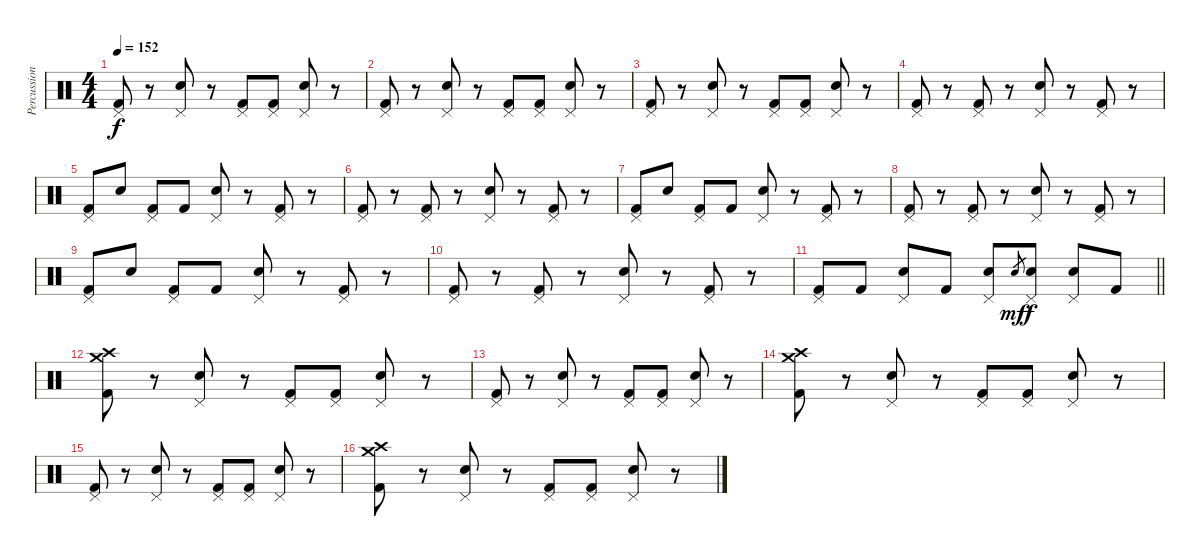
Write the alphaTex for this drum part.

\track ("Percussion" "Percussion") {instrument percussion}
\staff {score}
\articulation defaults
\ts (4 4)
\tempo 152
\clef neutral
\ks c
("Kick (hit) 2" "Pedal Hi-Hat (hit)").8{dy f} r.8 ("Snare (hit) 2" "Pedal Hi-Hat (hit)").8 r.8 ("Kick (hit) 2" "Pedal Hi-Hat (hit)").8 ("Kick (hit) 2" "Pedal Hi-Hat (hit)").8 ("Snare (hit) 2" "Pedal Hi-Hat (hit)").8 r.8 |
("Kick (hit) 2" "Pedal Hi-Hat (hit)").8 r.8 ("Snare (hit) 2" "Pedal Hi-Hat (hit)").8 r.8 ("Kick (hit) 2" "Pedal Hi-Hat (hit)").8 ("Kick (hit) 2" "Pedal Hi-Hat (hit)").8 ("Snare (hit) 2" "Pedal Hi-Hat (hit)").8 r.8 |
("Kick (hit) 2" "Pedal Hi-Hat (hit)").8 r.8 ("Snare (hit) 2" "Pedal Hi-Hat (hit)").8 r.8 ("Kick (hit) 2" "Pedal Hi-Hat (hit)").8 ("Kick (hit) 2" "Pedal Hi-Hat (hit)").8 ("Snare (hit) 2" "Pedal Hi-Hat (hit)").8 r.8 |
("Kick (hit) 2" "Pedal Hi-Hat (hit)").8 r.8 ("Kick (hit) 2" "Pedal Hi-Hat (hit)").8 r.8 ("Snare (hit) 2" "Pedal Hi-Hat (hit)").8 r.8 ("Kick (hit) 2" "Pedal Hi-Hat (hit)").8 r.8 |
("Kick (hit) 2" "Pedal Hi-Hat (hit)").8 "Snare (hit) 2".8 ("Kick (hit) 2" "Pedal Hi-Hat (hit)").8 "Kick (hit) 2".8 ("Snare (hit) 2" "Pedal Hi-Hat (hit)").8 r.8 ("Kick (hit) 2" "Pedal Hi-Hat (hit)").8 r.8 |
("Kick (hit) 2" "Pedal Hi-Hat (hit)").8 r.8 ("Kick (hit) 2" "Pedal Hi-Hat (hit)").8 r.8 ("Snare (hit) 2" "Pedal Hi-Hat (hit)").8 r.8 ("Kick (hit) 2" "Pedal Hi-Hat (hit)").8 r.8 |
("Kick (hit) 2" "Pedal Hi-Hat (hit)").8 "Snare (hit) 2".8 ("Kick (hit) 2" "Pedal Hi-Hat (hit)").8 "Kick (hit) 2".8 ("Snare (hit) 2" "Pedal Hi-Hat (hit)").8 r.8 ("Kick (hit) 2" "Pedal Hi-Hat (hit)").8 r.8 |
("Kick (hit) 2" "Pedal Hi-Hat (hit)").8 r.8 ("Kick (hit) 2" "Pedal Hi-Hat (hit)").8 r.8 ("Snare (hit) 2" "Pedal Hi-Hat (hit)").8 r.8 ("Kick (hit) 2" "Pedal Hi-Hat (hit)").8 r.8 |
("Kick (hit) 2" "Pedal Hi-Hat (hit)").8 "Snare (hit) 2".8 ("Kick (hit) 2" "Pedal Hi-Hat (hit)").8 "Kick (hit) 2".8 ("Snare (hit) 2" "Pedal Hi-Hat (hit)").8 r.8 ("Kick (hit) 2" "Pedal Hi-Hat (hit)").8 r.8 |
("Kick (hit) 2" "Pedal Hi-Hat (hit)").8 r.8 ("Kick (hit) 2" "Pedal Hi-Hat (hit)").8 r.8 ("Snare (hit) 2" "Pedal Hi-Hat (hit)").8 r.8 ("Kick (hit) 2" "Pedal Hi-Hat (hit)").8 r.8 |
\barLineRight lightlight
("Kick (hit) 2" "Pedal Hi-Hat (hit)").8 "Kick (hit) 2".8 ("Snare (hit) 2" "Pedal Hi-Hat (hit)").8 "Kick (hit) 2".8 ("Snare (hit) 2" "Pedal Hi-Hat (hit)").8 "Snare (hit) 2".8{gr dy mf} ("Snare (hit) 2" "Pedal Hi-Hat (hit)").8{dy f} ("Snare (hit) 2" "Pedal Hi-Hat (hit)").8 "Kick (hit) 2".8 |
("Kick (hit) 2" "Crash high (hit)" "Crash medium (hit)").8 r.8 ("Snare (hit) 2" "Pedal Hi-Hat (hit)").8 r.8 ("Kick (hit) 2" "Pedal Hi-Hat (hit)").8 ("Kick (hit) 2" "Pedal Hi-Hat (hit)").8 ("Snare (hit) 2" "Pedal Hi-Hat (hit)").8 r.8 |
("Kick (hit) 2" "Pedal Hi-Hat (hit)").8 r.8 ("Snare (hit) 2" "Pedal Hi-Hat (hit)").8 r.8 ("Kick (hit) 2" "Pedal Hi-Hat (hit)").8 ("Kick (hit) 2" "Pedal Hi-Hat (hit)").8 ("Snare (hit) 2" "Pedal Hi-Hat (hit)").8 r.8 |
("Kick (hit) 2" "Crash high (hit)" "Crash medium (hit)").8 r.8 ("Snare (hit) 2" "Pedal Hi-Hat (hit)").8 r.8 ("Kick (hit) 2" "Pedal Hi-Hat (hit)").8 ("Kick (hit) 2" "Pedal Hi-Hat (hit)").8 ("Snare (hit) 2" "Pedal Hi-Hat (hit)").8 r.8 |
("Kick (hit) 2" "Pedal Hi-Hat (hit)").8 r.8 ("Snare (hit) 2" "Pedal Hi-Hat (hit)").8 r.8 ("Kick (hit) 2" "Pedal Hi-Hat (hit)").8 ("Kick (hit) 2" "Pedal Hi-Hat (hit)").8 ("Snare (hit) 2" "Pedal Hi-Hat (hit)").8 r.8 |
("Kick (hit) 2" "Crash high (hit)" "Crash medium (hit)").8 r.8 ("Snare (hit) 2" "Pedal Hi-Hat (hit)").8 r.8 ("Kick (hit) 2" "Pedal Hi-Hat (hit)").8 ("Kick (hit) 2" "Pedal Hi-Hat (hit)").8 ("Snare (hit) 2" "Pedal Hi-Hat (hit)").8 r.8
